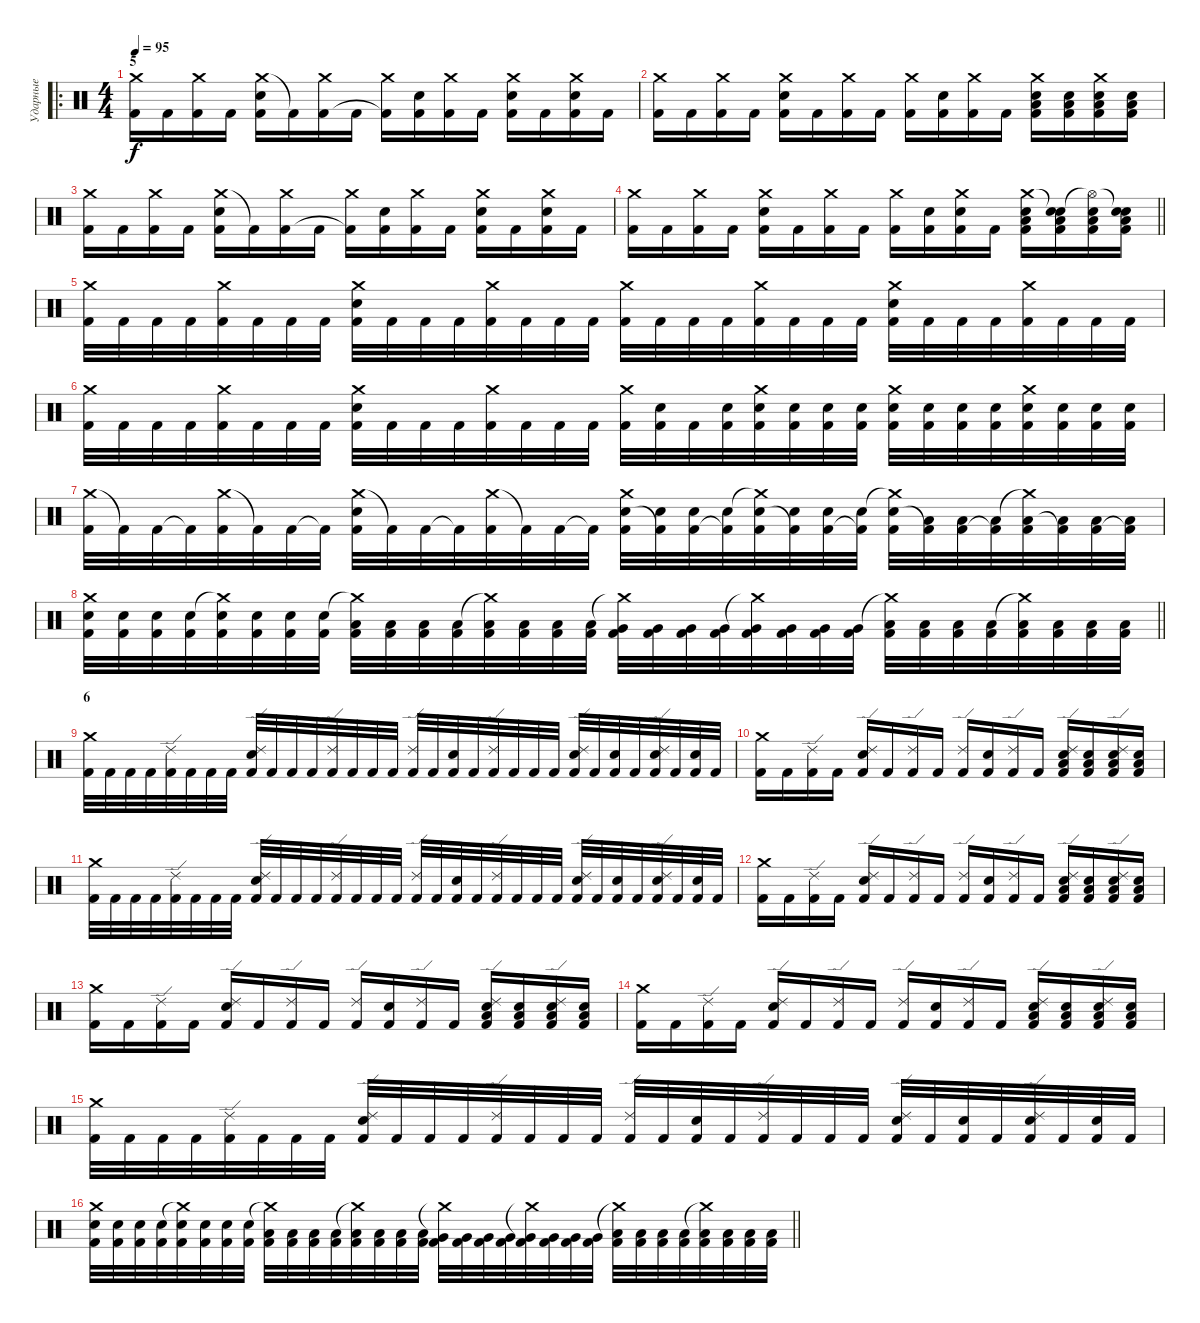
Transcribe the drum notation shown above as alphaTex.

\track ("Ударные" "Ударные") {instrument percussion}
\staff {score}
\articulation defaults
\ro
\ts (4 4)
\section ("" "5")
\tempo 95
\clef neutral
\ks c
("Crash medium (hit)" "Kick (hit) 2").16{dy f} "Kick (hit) 2".16 ("Crash medium (hit)" "Kick (hit) 2").16 "Kick (hit) 2".16 ("Crash medium (hit)" "Electric Snare (hit)" "Kick (hit) 2").16 "Kick (hit) 2"{t}.16 ("Crash medium (hit)" "Kick (hit) 2").16 "Kick (hit) 2".16 ("Crash medium (hit)" "Kick (hit) 2"{t}).16 ("Electric Snare (hit)" "Kick (hit) 2").16 ("Crash medium (hit)" "Kick (hit) 2").16 "Kick (hit) 2".16 ("Crash medium (hit)" "Electric Snare (hit)" "Kick (hit) 2").16 "Kick (hit) 2".16 ("Crash medium (hit)" "Electric Snare (hit)" "Kick (hit) 2").16 "Kick (hit) 2".16 |
("Crash medium (hit)" "Kick (hit) 2").16 "Kick (hit) 2".16 ("Crash medium (hit)" "Kick (hit) 2").16 "Kick (hit) 2".16 ("Crash medium (hit)" "Electric Snare (hit)" "Kick (hit) 2").16 "Kick (hit) 2".16 ("Crash medium (hit)" "Kick (hit) 2").16 "Kick (hit) 2".16 ("Crash medium (hit)" "Kick (hit) 2").16 ("Electric Snare (hit)" "Kick (hit) 2").16 ("Crash medium (hit)" "Kick (hit) 2").16 "Kick (hit) 2".16 ("Crash medium (hit)" "Electric Snare (hit)" "Low Floor Tom (hit)" "Kick (hit) 2").16 ("Electric Snare (hit)" "Low Floor Tom (hit)" "Kick (hit) 2").16 ("Crash medium (hit)" "Electric Snare (hit)" "Low Floor Tom (hit)" "Kick (hit) 2").16 ("Electric Snare (hit)" "Low Floor Tom (hit)" "Kick (hit) 2").16 |
("Crash medium (hit)" "Kick (hit) 2").16 "Kick (hit) 2".16 ("Crash medium (hit)" "Kick (hit) 2").16 "Kick (hit) 2".16 ("Crash medium (hit)" "Electric Snare (hit)" "Kick (hit) 2").16 "Kick (hit) 2"{t}.16 ("Crash medium (hit)" "Kick (hit) 2").16 "Kick (hit) 2".16 ("Crash medium (hit)" "Kick (hit) 2"{t}).16 ("Electric Snare (hit)" "Kick (hit) 2").16 ("Crash medium (hit)" "Kick (hit) 2").16 "Kick (hit) 2".16 ("Crash medium (hit)" "Electric Snare (hit)" "Kick (hit) 2").16 "Kick (hit) 2".16 ("Crash medium (hit)" "Electric Snare (hit)" "Kick (hit) 2").16 "Kick (hit) 2".16 |
\barLineRight lightlight
("Crash medium (hit)" "Kick (hit) 2").16 "Kick (hit) 2".16 ("Crash medium (hit)" "Kick (hit) 2").16 "Kick (hit) 2".16 ("Crash medium (hit)" "Electric Snare (hit)" "Kick (hit) 2").16 "Kick (hit) 2".16 ("Crash medium (hit)" "Kick (hit) 2").16 "Kick (hit) 2".16 ("Crash medium (hit)" "Kick (hit) 2").16 ("Electric Snare (hit)" "Kick (hit) 2").16 ("Crash medium (hit)" "Snare (hit)" "Kick (hit) 2").16 "Kick (hit) 2".16 ("Crash medium (hit)" "Electric Snare (hit)" "Low Floor Tom (hit)" "Kick (hit) 2").16 ("Snare (hit)"{t} "Electric Snare (hit)" "Low Floor Tom (hit)" "Kick (hit) 2").16 ("Hi-Hat (open)"{t} "Electric Snare (hit)" "Low Floor Tom (hit)" "Kick (hit) 2").16 ("Snare (hit)"{t} "Electric Snare (hit)" "Low Floor Tom (hit)" "Kick (hit) 2").16 |
("Crash medium (hit)" "Kick (hit) 2").32 "Kick (hit) 2".32 "Kick (hit) 2".32 "Kick (hit) 2".32 ("Crash medium (hit)" "Kick (hit) 2").32 "Kick (hit) 2".32 "Kick (hit) 2".32 "Kick (hit) 2".32 ("Crash medium (hit)" "Electric Snare (hit)" "Kick (hit) 2").32 "Kick (hit) 2".32 "Kick (hit) 2".32 "Kick (hit) 2".32 ("Crash medium (hit)" "Kick (hit) 2").32 "Kick (hit) 2".32 "Kick (hit) 2".32 "Kick (hit) 2".32 ("Crash medium (hit)" "Kick (hit) 2").32 "Kick (hit) 2".32 "Kick (hit) 2".32 "Kick (hit) 2".32 ("Crash medium (hit)" "Kick (hit) 2").32 "Kick (hit) 2".32 "Kick (hit) 2".32 "Kick (hit) 2".32 ("Crash medium (hit)" "Electric Snare (hit)" "Kick (hit) 2").32 "Kick (hit) 2".32 "Kick (hit) 2".32 "Kick (hit) 2".32 ("Crash medium (hit)" "Kick (hit) 2").32 "Kick (hit) 2".32 "Kick (hit) 2".32 "Kick (hit) 2".32 |
("Crash medium (hit)" "Kick (hit) 2").32 "Kick (hit) 2".32 "Kick (hit) 2".32 "Kick (hit) 2".32 ("Crash medium (hit)" "Kick (hit) 2").32 "Kick (hit) 2".32 "Kick (hit) 2".32 "Kick (hit) 2".32 ("Crash medium (hit)" "Electric Snare (hit)" "Kick (hit) 2").32 "Kick (hit) 2".32 "Kick (hit) 2".32 "Kick (hit) 2".32 ("Crash medium (hit)" "Kick (hit) 2").32 "Kick (hit) 2".32 "Kick (hit) 2".32 "Kick (hit) 2".32 ("Crash medium (hit)" "Kick (hit) 2").32 ("Electric Snare (hit)" "Kick (hit) 2").32 "Kick (hit) 2".32 ("Electric Snare (hit)" "Kick (hit) 2").32 ("Crash medium (hit)" "Electric Snare (hit)" "Kick (hit) 2").32 ("Electric Snare (hit)" "Kick (hit) 2").32 ("Electric Snare (hit)" "Kick (hit) 2").32 ("Electric Snare (hit)" "Kick (hit) 2").32 ("Crash medium (hit)" "Electric Snare (hit)" "Kick (hit) 2").32 ("Electric Snare (hit)" "Kick (hit) 2").32 ("Electric Snare (hit)" "Kick (hit) 2").32 ("Electric Snare (hit)" "Kick (hit) 2").32 ("Crash medium (hit)" "Electric Snare (hit)" "Kick (hit) 2").32 ("Electric Snare (hit)" "Kick (hit) 2").32 ("Electric Snare (hit)" "Kick (hit) 2").32 ("Electric Snare (hit)" "Kick (hit) 2").32 |
("Crash medium (hit)" "Kick (hit) 2").32 "Kick (hit) 2"{t}.32 "Kick (hit) 2".32 "Kick (hit) 2"{t}.32 ("Crash medium (hit)" "Kick (hit) 2").32 "Kick (hit) 2"{t}.32 "Kick (hit) 2".32 "Kick (hit) 2"{t}.32 ("Crash medium (hit)" "Electric Snare (hit)" "Kick (hit) 2").32 "Kick (hit) 2"{t}.32 "Kick (hit) 2".32 "Kick (hit) 2"{t}.32 ("Crash medium (hit)" "Kick (hit) 2").32 "Kick (hit) 2"{t}.32 "Kick (hit) 2".32 "Kick (hit) 2"{t}.32 ("Crash medium (hit)" "Electric Snare (hit)" "Kick (hit) 2").32 ("Electric Snare (hit)" "Kick (hit) 2"{t}).32 ("Electric Snare (hit)" "Kick (hit) 2").32 ("Electric Snare (hit)" "Kick (hit) 2"{t}).32 ("Crash medium (hit)"{t} "Electric Snare (hit)" "Kick (hit) 2").32 ("Electric Snare (hit)" "Kick (hit) 2"{t}).32 ("Electric Snare (hit)" "Kick (hit) 2").32 ("Electric Snare (hit)" "Kick (hit) 2"{t}).32 ("Crash medium (hit)"{t} "Electric Snare (hit)" "Kick (hit) 2").32 ("Low Floor Tom (hit)" "Kick (hit) 2"{t}).32 ("Low Floor Tom (hit)" "Kick (hit) 2").32 ("Low Floor Tom (hit)" "Kick (hit) 2"{t}).32 ("Crash medium (hit)"{t} "Low Floor Tom (hit)" "Kick (hit) 2").32 ("Low Floor Tom (hit)" "Kick (hit) 2"{t}).32 ("Low Floor Tom (hit)" "Kick (hit) 2").32 ("Low Floor Tom (hit)" "Kick (hit) 2"{t}).32 |
\barLineRight lightlight
("Crash medium (hit)" "Electric Snare (hit)" "Kick (hit) 2").32 ("Electric Snare (hit)" "Kick (hit) 2").32 ("Electric Snare (hit)" "Kick (hit) 2").32 ("Electric Snare (hit)" "Kick (hit) 2").32 ("Crash medium (hit)"{t} "Electric Snare (hit)" "Kick (hit) 2").32 ("Electric Snare (hit)" "Kick (hit) 2").32 ("Electric Snare (hit)" "Kick (hit) 2").32 ("Electric Snare (hit)" "Kick (hit) 2").32 ("Crash medium (hit)"{t} "Low Tom (hit)" "Kick (hit) 2").32 ("Low Tom (hit)" "Kick (hit) 2").32 ("Low Tom (hit)" "Kick (hit) 2").32 ("Low Tom (hit)" "Kick (hit) 2").32 ("Crash medium (hit)"{t} "Low Tom (hit)" "Kick (hit) 2").32 ("Low Tom (hit)" "Kick (hit) 2").32 ("Low Tom (hit)" "Kick (hit) 2").32 ("Low Tom (hit)" "Kick (hit) 2").32 ("Crash medium (hit)"{t} "Very Low Tom (hit)" "Kick (hit) 2").32 ("Very Low Tom (hit)" "Kick (hit) 2").32 ("Very Low Tom (hit)" "Kick (hit) 2").32 ("Very Low Tom (hit)" "Kick (hit) 2").32 ("Crash medium (hit)"{t} "Very Low Tom (hit)" "Kick (hit) 2").32 ("Very Low Tom (hit)" "Kick (hit) 2").32 ("Very Low Tom (hit)" "Kick (hit) 2").32 ("Very Low Tom (hit)" "Kick (hit) 2").32 ("Crash medium (hit)"{t} "Low Floor Tom (hit)" "Kick (hit) 2").32 ("Low Floor Tom (hit)" "Kick (hit) 2").32 ("Low Floor Tom (hit)" "Kick (hit) 2").32 ("Low Floor Tom (hit)" "Kick (hit) 2").32 ("Crash medium (hit)"{t} "Low Floor Tom (hit)" "Kick (hit) 2").32 ("Low Floor Tom (hit)" "Kick (hit) 2").32 ("Low Floor Tom (hit)" "Kick (hit) 2").32 ("Low Floor Tom (hit)" "Kick (hit) 2").32 |
\section ("" "6")
("Crash medium (hit)" "Kick (hit) 2").32 "Kick (hit) 2".32 "Kick (hit) 2".32 "Kick (hit) 2".32 ("Ride (edge) 2" "Kick (hit) 2").32 "Kick (hit) 2".32 "Kick (hit) 2".32 "Kick (hit) 2".32 ("Ride (edge) 2" "Electric Snare (hit)" "Kick (hit) 2").32 "Kick (hit) 2".32 "Kick (hit) 2".32 "Kick (hit) 2".32 ("Ride (edge) 2" "Kick (hit) 2").32 "Kick (hit) 2".32 "Kick (hit) 2".32 "Kick (hit) 2".32 ("Ride (edge) 2" "Kick (hit) 2").32 "Kick (hit) 2".32 ("Electric Snare (hit)" "Kick (hit) 2").32 "Kick (hit) 2".32 ("Ride (edge) 2" "Kick (hit) 2").32 "Kick (hit) 2".32 "Kick (hit) 2".32 "Kick (hit) 2".32 ("Ride (edge) 2" "Electric Snare (hit)" "Kick (hit) 2").32 "Kick (hit) 2".32 ("Electric Snare (hit)" "Kick (hit) 2").32 "Kick (hit) 2".32 ("Ride (edge) 2" "Electric Snare (hit)" "Kick (hit) 2").32 "Kick (hit) 2".32 ("Electric Snare (hit)" "Kick (hit) 2").32 "Kick (hit) 2".32 |
("Crash medium (hit)" "Kick (hit) 2").16 "Kick (hit) 2".16 ("Ride (edge) 2" "Kick (hit) 2").16 "Kick (hit) 2".16 ("Ride (edge) 2" "Electric Snare (hit)" "Kick (hit) 2").16 "Kick (hit) 2".16 ("Ride (edge) 2" "Kick (hit) 2").16 "Kick (hit) 2".16 ("Ride (edge) 2" "Kick (hit) 2").16 ("Electric Snare (hit)" "Kick (hit) 2").16 ("Ride (edge) 2" "Kick (hit) 2").16 "Kick (hit) 2".16 ("Ride (edge) 2" "Electric Snare (hit)" "Low Floor Tom (hit)" "Kick (hit) 2").16 ("Electric Snare (hit)" "Low Floor Tom (hit)" "Kick (hit) 2").16 ("Ride (edge) 2" "Electric Snare (hit)" "Low Floor Tom (hit)" "Kick (hit) 2").16 ("Electric Snare (hit)" "Low Floor Tom (hit)" "Kick (hit) 2").16 |
("Crash medium (hit)" "Kick (hit) 2").32 "Kick (hit) 2".32 "Kick (hit) 2".32 "Kick (hit) 2".32 ("Ride (edge) 2" "Kick (hit) 2").32 "Kick (hit) 2".32 "Kick (hit) 2".32 "Kick (hit) 2".32 ("Ride (edge) 2" "Electric Snare (hit)" "Kick (hit) 2").32 "Kick (hit) 2".32 "Kick (hit) 2".32 "Kick (hit) 2".32 ("Ride (edge) 2" "Kick (hit) 2").32 "Kick (hit) 2".32 "Kick (hit) 2".32 "Kick (hit) 2".32 ("Ride (edge) 2" "Kick (hit) 2").32 "Kick (hit) 2".32 ("Electric Snare (hit)" "Kick (hit) 2").32 "Kick (hit) 2".32 ("Ride (edge) 2" "Kick (hit) 2").32 "Kick (hit) 2".32 "Kick (hit) 2".32 "Kick (hit) 2".32 ("Ride (edge) 2" "Electric Snare (hit)" "Kick (hit) 2").32 "Kick (hit) 2".32 ("Electric Snare (hit)" "Kick (hit) 2").32 "Kick (hit) 2".32 ("Ride (edge) 2" "Electric Snare (hit)" "Kick (hit) 2").32 "Kick (hit) 2".32 ("Electric Snare (hit)" "Kick (hit) 2").32 "Kick (hit) 2".32 |
("Crash medium (hit)" "Kick (hit) 2").16 "Kick (hit) 2".16 ("Ride (edge) 2" "Kick (hit) 2").16 "Kick (hit) 2".16 ("Ride (edge) 2" "Electric Snare (hit)" "Kick (hit) 2").16 "Kick (hit) 2".16 ("Ride (edge) 2" "Kick (hit) 2").16 "Kick (hit) 2".16 ("Ride (edge) 2" "Kick (hit) 2").16 ("Electric Snare (hit)" "Kick (hit) 2").16 ("Ride (edge) 2" "Kick (hit) 2").16 "Kick (hit) 2".16 ("Ride (edge) 2" "Electric Snare (hit)" "Low Floor Tom (hit)" "Kick (hit) 2").16 ("Electric Snare (hit)" "Low Floor Tom (hit)" "Kick (hit) 2").16 ("Ride (edge) 2" "Electric Snare (hit)" "Low Floor Tom (hit)" "Kick (hit) 2").16 ("Electric Snare (hit)" "Low Floor Tom (hit)" "Kick (hit) 2").16 |
("Crash medium (hit)" "Kick (hit) 2").16 "Kick (hit) 2".16 ("Ride (edge) 2" "Kick (hit) 2").16 "Kick (hit) 2".16 ("Ride (edge) 2" "Electric Snare (hit)" "Kick (hit) 2").16 "Kick (hit) 2".16 ("Ride (edge) 2" "Kick (hit) 2").16 "Kick (hit) 2".16 ("Ride (edge) 2" "Kick (hit) 2").16 ("Electric Snare (hit)" "Kick (hit) 2").16 ("Ride (edge) 2" "Kick (hit) 2").16 "Kick (hit) 2".16 ("Ride (edge) 2" "Electric Snare (hit)" "Low Floor Tom (hit)" "Kick (hit) 2").16 ("Electric Snare (hit)" "Low Floor Tom (hit)" "Kick (hit) 2").16 ("Ride (edge) 2" "Electric Snare (hit)" "Low Floor Tom (hit)" "Kick (hit) 2").16 ("Electric Snare (hit)" "Low Floor Tom (hit)" "Kick (hit) 2").16 |
("Crash medium (hit)" "Kick (hit) 2").16 "Kick (hit) 2".16 ("Ride (edge) 2" "Kick (hit) 2").16 "Kick (hit) 2".16 ("Ride (edge) 2" "Electric Snare (hit)" "Kick (hit) 2").16 "Kick (hit) 2".16 ("Ride (edge) 2" "Kick (hit) 2").16 "Kick (hit) 2".16 ("Ride (edge) 2" "Kick (hit) 2").16 ("Electric Snare (hit)" "Kick (hit) 2").16 ("Ride (edge) 2" "Kick (hit) 2").16 "Kick (hit) 2".16 ("Ride (edge) 2" "Electric Snare (hit)" "Low Floor Tom (hit)" "Kick (hit) 2").16 ("Electric Snare (hit)" "Low Floor Tom (hit)" "Kick (hit) 2").16 ("Ride (edge) 2" "Electric Snare (hit)" "Low Floor Tom (hit)" "Kick (hit) 2").16 ("Electric Snare (hit)" "Low Floor Tom (hit)" "Kick (hit) 2").16 |
("Crash medium (hit)" "Kick (hit) 2").32 "Kick (hit) 2".32 "Kick (hit) 2".32 "Kick (hit) 2".32 ("Ride (edge) 2" "Kick (hit) 2").32 "Kick (hit) 2".32 "Kick (hit) 2".32 "Kick (hit) 2".32 ("Ride (edge) 2" "Electric Snare (hit)" "Kick (hit) 2").32 "Kick (hit) 2".32 "Kick (hit) 2".32 "Kick (hit) 2".32 ("Ride (edge) 2" "Kick (hit) 2").32 "Kick (hit) 2".32 "Kick (hit) 2".32 "Kick (hit) 2".32 ("Ride (edge) 2" "Kick (hit) 2").32 "Kick (hit) 2".32 ("Electric Snare (hit)" "Kick (hit) 2").32 "Kick (hit) 2".32 ("Ride (edge) 2" "Kick (hit) 2").32 "Kick (hit) 2".32 "Kick (hit) 2".32 "Kick (hit) 2".32 ("Ride (edge) 2" "Electric Snare (hit)" "Kick (hit) 2").32 "Kick (hit) 2".32 ("Electric Snare (hit)" "Kick (hit) 2").32 "Kick (hit) 2".32 ("Ride (edge) 2" "Electric Snare (hit)" "Kick (hit) 2").32 "Kick (hit) 2".32 ("Electric Snare (hit)" "Kick (hit) 2").32 "Kick (hit) 2".32 |
\barLineRight lightlight
("Crash medium (hit)" "Electric Snare (hit)" "Kick (hit) 2").32 ("Electric Snare (hit)" "Kick (hit) 2").32 ("Electric Snare (hit)" "Kick (hit) 2").32 ("Electric Snare (hit)" "Kick (hit) 2").32 ("Crash medium (hit)"{t} "Electric Snare (hit)" "Kick (hit) 2").32 ("Electric Snare (hit)" "Kick (hit) 2").32 ("Electric Snare (hit)" "Kick (hit) 2").32 ("Electric Snare (hit)" "Kick (hit) 2").32 ("Crash medium (hit)"{t} "Low Tom (hit)" "Kick (hit) 2").32 ("Low Tom (hit)" "Kick (hit) 2").32 ("Low Tom (hit)" "Kick (hit) 2").32 ("Low Tom (hit)" "Kick (hit) 2").32 ("Crash medium (hit)"{t} "Low Tom (hit)" "Kick (hit) 2").32 ("Low Tom (hit)" "Kick (hit) 2").32 ("Low Tom (hit)" "Kick (hit) 2").32 ("Low Tom (hit)" "Kick (hit) 2").32 ("Crash medium (hit)"{t} "Very Low Tom (hit)" "Kick (hit) 2").32 ("Very Low Tom (hit)" "Kick (hit) 2").32 ("Very Low Tom (hit)" "Kick (hit) 2").32 ("Very Low Tom (hit)" "Kick (hit) 2").32 ("Crash medium (hit)"{t} "Very Low Tom (hit)" "Kick (hit) 2").32 ("Very Low Tom (hit)" "Kick (hit) 2").32 ("Very Low Tom (hit)" "Kick (hit) 2").32 ("Very Low Tom (hit)" "Kick (hit) 2").32 ("Crash medium (hit)"{t} "Low Floor Tom (hit)" "Kick (hit) 2").32 ("Low Floor Tom (hit)" "Kick (hit) 2").32 ("Low Floor Tom (hit)" "Kick (hit) 2").32 ("Low Floor Tom (hit)" "Kick (hit) 2").32 ("Crash medium (hit)"{t} "Low Floor Tom (hit)" "Kick (hit) 2").32 ("Low Floor Tom (hit)" "Kick (hit) 2").32 ("Low Floor Tom (hit)" "Kick (hit) 2").32 ("Low Floor Tom (hit)" "Kick (hit) 2").32
